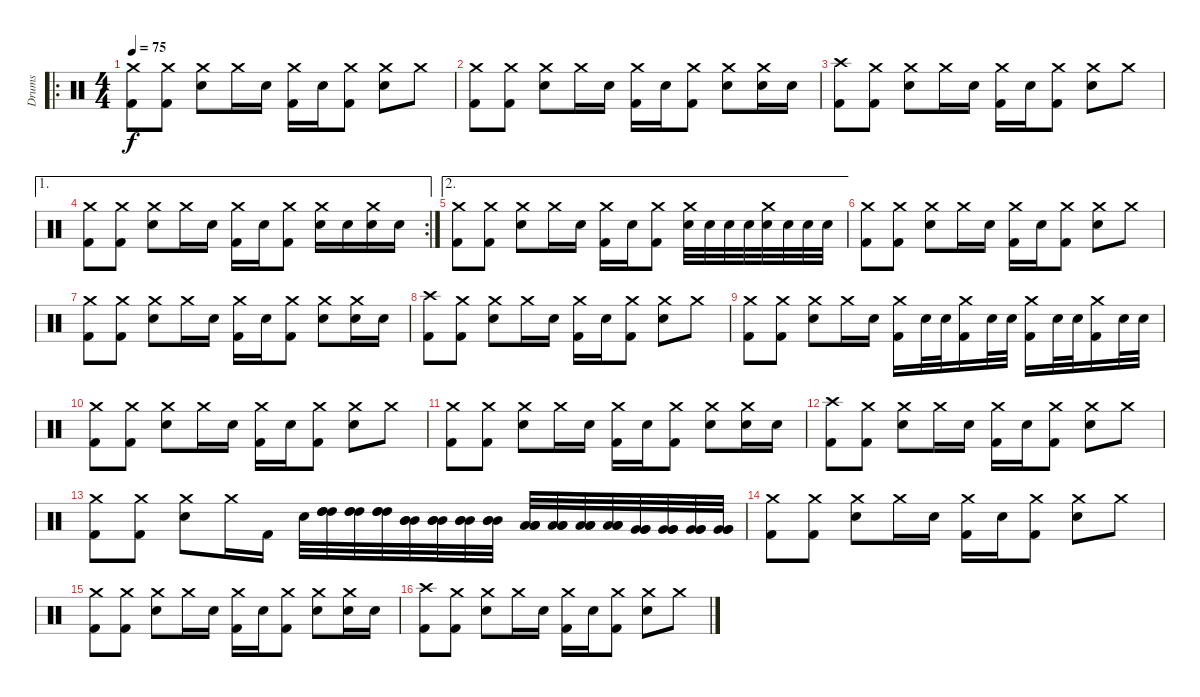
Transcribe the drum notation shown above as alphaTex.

\track ("Drums" "Drums") {instrument percussion}
\staff {score}
\articulation defaults
\ro
\ts (4 4)
\tempo 75
\clef neutral
\ks c
("Crash medium (hit)" "Kick (hit) 2").8{dy f} ("Crash medium (hit)" "Kick (hit) 2").8 ("Crash medium (hit)" "Electric Snare (hit)").8 "Crash medium (hit)".16 "Electric Snare (hit)".16 ("Crash medium (hit)" "Kick (hit) 2").16 "Electric Snare (hit)".16 ("Crash medium (hit)" "Kick (hit) 2").8 ("Crash medium (hit)" "Electric Snare (hit)").8 "Crash medium (hit)".8 |
("Crash medium (hit)" "Kick (hit) 2").8 ("Crash medium (hit)" "Kick (hit) 2").8 ("Crash medium (hit)" "Electric Snare (hit)").8 "Crash medium (hit)".16 "Electric Snare (hit)".16 ("Crash medium (hit)" "Kick (hit) 2").16 "Electric Snare (hit)".16 ("Crash medium (hit)" "Kick (hit) 2").8 ("Crash medium (hit)" "Electric Snare (hit)").8 ("Crash medium (hit)" "Electric Snare (hit)").16 "Electric Snare (hit)".16 |
("Crash high (hit)" "Kick (hit) 2").8 ("Crash medium (hit)" "Kick (hit) 2").8 ("Crash medium (hit)" "Electric Snare (hit)").8 "Crash medium (hit)".16 "Electric Snare (hit)".16 ("Crash medium (hit)" "Kick (hit) 2").16 "Electric Snare (hit)".16 ("Crash medium (hit)" "Kick (hit) 2").8 ("Crash medium (hit)" "Electric Snare (hit)").8 "Crash medium (hit)".8 |
\ae 1
\rc 2
("Crash medium (hit)" "Kick (hit) 2").8 ("Crash medium (hit)" "Kick (hit) 2").8 ("Crash medium (hit)" "Electric Snare (hit)").8 "Crash medium (hit)".16 "Electric Snare (hit)".16 ("Crash medium (hit)" "Kick (hit) 2").16 "Electric Snare (hit)".16 ("Crash medium (hit)" "Kick (hit) 2").8 ("Crash medium (hit)" "Electric Snare (hit)").16 "Electric Snare (hit)".16 ("Crash medium (hit)" "Electric Snare (hit)").16 "Electric Snare (hit)".16 |
\ae 2
("Crash medium (hit)" "Kick (hit) 2").8 ("Crash medium (hit)" "Kick (hit) 2").8 ("Crash medium (hit)" "Electric Snare (hit)").8 "Crash medium (hit)".16 "Electric Snare (hit)".16 ("Crash medium (hit)" "Kick (hit) 2").16 "Electric Snare (hit)".16 ("Crash medium (hit)" "Kick (hit) 2").8 ("Crash medium (hit)" "Electric Snare (hit)").32 "Electric Snare (hit)".32 "Electric Snare (hit)".32 "Electric Snare (hit)".32 ("Crash medium (hit)" "Electric Snare (hit)").32 "Electric Snare (hit)".32 "Electric Snare (hit)".32 "Electric Snare (hit)".32 |
("Crash medium (hit)" "Kick (hit) 2").8 ("Crash medium (hit)" "Kick (hit) 2").8 ("Crash medium (hit)" "Electric Snare (hit)").8 "Crash medium (hit)".16 "Electric Snare (hit)".16 ("Crash medium (hit)" "Kick (hit) 2").16 "Electric Snare (hit)".16 ("Crash medium (hit)" "Kick (hit) 2").8 ("Crash medium (hit)" "Electric Snare (hit)").8 "Crash medium (hit)".8 |
("Crash medium (hit)" "Kick (hit) 2").8 ("Crash medium (hit)" "Kick (hit) 2").8 ("Crash medium (hit)" "Electric Snare (hit)").8 "Crash medium (hit)".16 "Electric Snare (hit)".16 ("Crash medium (hit)" "Kick (hit) 2").16 "Electric Snare (hit)".16 ("Crash medium (hit)" "Kick (hit) 2").8 ("Crash medium (hit)" "Electric Snare (hit)").8 ("Crash medium (hit)" "Electric Snare (hit)").16 "Electric Snare (hit)".16 |
("Crash high (hit)" "Kick (hit) 2").8 ("Crash medium (hit)" "Kick (hit) 2").8 ("Crash medium (hit)" "Electric Snare (hit)").8 "Crash medium (hit)".16 "Electric Snare (hit)".16 ("Crash medium (hit)" "Kick (hit) 2").16 "Electric Snare (hit)".16 ("Crash medium (hit)" "Kick (hit) 2").8 ("Crash medium (hit)" "Electric Snare (hit)").8 "Crash medium (hit)".8 |
("Crash medium (hit)" "Kick (hit) 2").8 ("Crash medium (hit)" "Kick (hit) 2").8 ("Crash medium (hit)" "Electric Snare (hit)").8 "Crash medium (hit)".16 "Electric Snare (hit)".16 ("Crash medium (hit)" "Kick (hit) 2").16 "Electric Snare (hit)".32 "Electric Snare (hit)".32 ("Crash medium (hit)" "Kick (hit) 2").16 "Electric Snare (hit)".32 "Electric Snare (hit)".32 ("Crash medium (hit)" "Kick (hit) 2").16 "Electric Snare (hit)".32 "Electric Snare (hit)".32 ("Crash medium (hit)" "Kick (hit) 2").16 "Electric Snare (hit)".32 "Electric Snare (hit)".32 |
("Crash medium (hit)" "Kick (hit) 2").8 ("Crash medium (hit)" "Kick (hit) 2").8 ("Crash medium (hit)" "Electric Snare (hit)").8 "Crash medium (hit)".16 "Electric Snare (hit)".16 ("Crash medium (hit)" "Kick (hit) 2").16 "Electric Snare (hit)".16 ("Crash medium (hit)" "Kick (hit) 2").8 ("Crash medium (hit)" "Electric Snare (hit)").8 "Crash medium (hit)".8 |
("Crash medium (hit)" "Kick (hit) 2").8 ("Crash medium (hit)" "Kick (hit) 2").8 ("Crash medium (hit)" "Electric Snare (hit)").8 "Crash medium (hit)".16 "Electric Snare (hit)".16 ("Crash medium (hit)" "Kick (hit) 2").16 "Electric Snare (hit)".16 ("Crash medium (hit)" "Kick (hit) 2").8 ("Crash medium (hit)" "Electric Snare (hit)").8 ("Crash medium (hit)" "Electric Snare (hit)").16 "Electric Snare (hit)".16 |
("Crash high (hit)" "Kick (hit) 2").8 ("Crash medium (hit)" "Kick (hit) 2").8 ("Crash medium (hit)" "Electric Snare (hit)").8 "Crash medium (hit)".16 "Electric Snare (hit)".16 ("Crash medium (hit)" "Kick (hit) 2").16 "Electric Snare (hit)".16 ("Crash medium (hit)" "Kick (hit) 2").8 ("Crash medium (hit)" "Electric Snare (hit)").8 "Crash medium (hit)".8 |
("Crash medium (hit)" "Kick (hit) 2").8 ("Crash medium (hit)" "Kick (hit) 2").8 ("Crash medium (hit)" "Electric Snare (hit)").8 "Crash medium (hit)".16 "Kick (hit) 2".16 "Electric Snare (hit)".32 ("High Tom (hit)" "High Tom (hit)" "High Tom (hit)").32 ("High Tom (hit)" "High Tom (hit)" "High Tom (hit)").32 ("High Tom (hit)" "High Tom (hit)" "High Tom (hit)").32 ("Mid Tom (hit)" "Mid Tom (hit)" "Mid Tom (hit)").32 ("Mid Tom (hit)" "Mid Tom (hit)" "Mid Tom (hit)").32 ("Mid Tom (hit)" "Mid Tom (hit)" "Mid Tom (hit)").32 ("Mid Tom (hit)" "Mid Tom (hit)" "Mid Tom (hit)").32 ("Low Tom (hit)" "Low Tom (hit)" "Low Tom (hit)").32 ("Low Tom (hit)" "Low Tom (hit)" "Low Tom (hit)").32 ("Low Tom (hit)" "Low Tom (hit)" "Low Tom (hit)").32 ("Low Tom (hit)" "Low Tom (hit)" "Low Tom (hit)").32 ("Very Low Tom (hit)" "Very Low Tom (hit)" "Very Low Tom (hit)").32 ("Very Low Tom (hit)" "Very Low Tom (hit)" "Very Low Tom (hit)").32 ("Very Low Tom (hit)" "Very Low Tom (hit)" "Very Low Tom (hit)").32 ("Very Low Tom (hit)" "Very Low Tom (hit)" "Very Low Tom (hit)").32 |
("Crash medium (hit)" "Kick (hit) 2").8{volume 9} ("Crash medium (hit)" "Kick (hit) 2").8 ("Crash medium (hit)" "Electric Snare (hit)").8 "Crash medium (hit)".16 "Electric Snare (hit)".16 ("Crash medium (hit)" "Kick (hit) 2").16 "Electric Snare (hit)".16 ("Crash medium (hit)" "Kick (hit) 2").8 ("Crash medium (hit)" "Electric Snare (hit)").8 "Crash medium (hit)".8 |
("Crash medium (hit)" "Kick (hit) 2").8 ("Crash medium (hit)" "Kick (hit) 2").8 ("Crash medium (hit)" "Electric Snare (hit)").8 "Crash medium (hit)".16 "Electric Snare (hit)".16 ("Crash medium (hit)" "Kick (hit) 2").16 "Electric Snare (hit)".16 ("Crash medium (hit)" "Kick (hit) 2").8 ("Crash medium (hit)" "Electric Snare (hit)").8 ("Crash medium (hit)" "Electric Snare (hit)").16 "Electric Snare (hit)".16 |
("Crash high (hit)" "Kick (hit) 2").8{volume 6} ("Crash medium (hit)" "Kick (hit) 2").8 ("Crash medium (hit)" "Electric Snare (hit)").8 "Crash medium (hit)".16 "Electric Snare (hit)".16 ("Crash medium (hit)" "Kick (hit) 2").16 "Electric Snare (hit)".16 ("Crash medium (hit)" "Kick (hit) 2").8 ("Crash medium (hit)" "Electric Snare (hit)").8 "Crash medium (hit)".8
